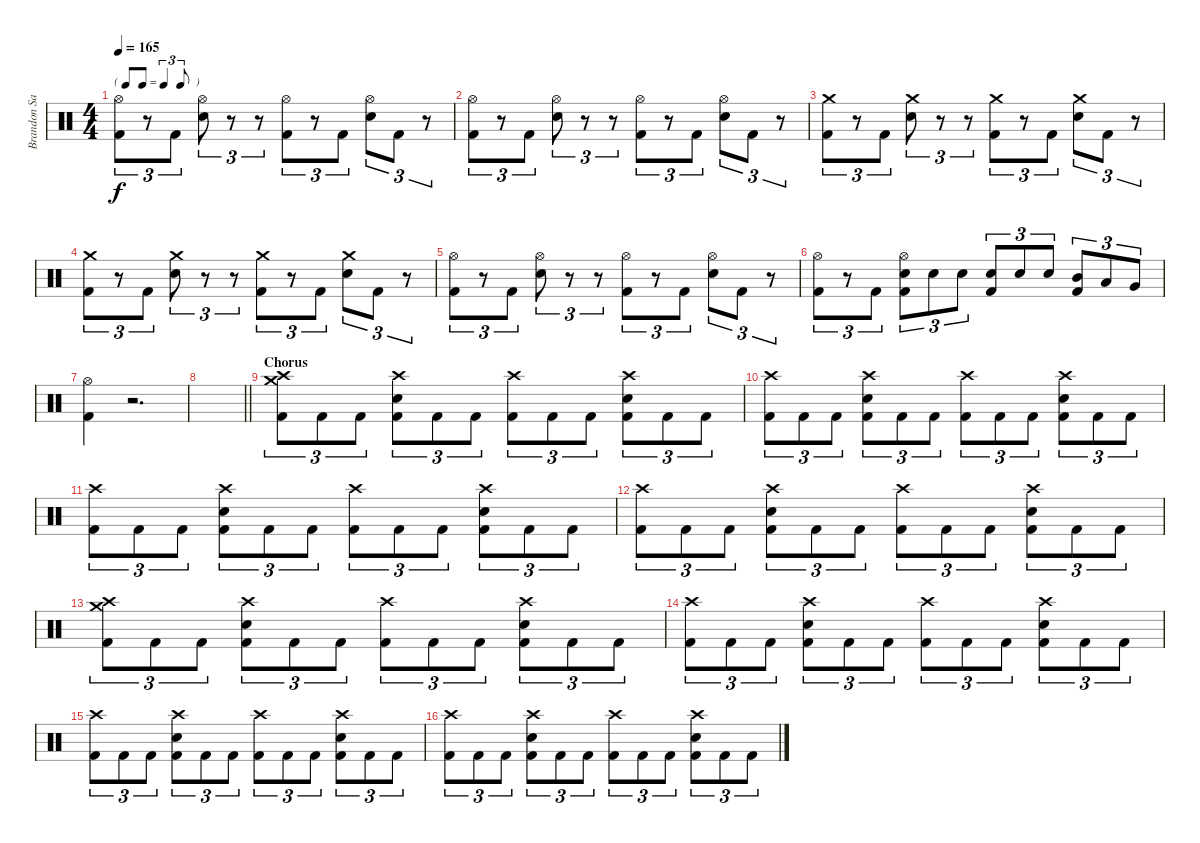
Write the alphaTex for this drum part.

\track ("Brandon Saller" "Brandon Sa") {instrument percussion}
\staff {score}
\articulation defaults
\ts (4 4)
\tf triplet8th
\tempo 165
\clef neutral
\ks c
("Hi-Hat (open)" "Kick (hit) 2").8{tu (3 2) dy f} r.8{tu (3 2)} "Kick (hit) 2".8{tu (3 2)} ("Hi-Hat (open)" "Electric Snare (hit)").8{tu (3 2)} r.8{tu (3 2)} r.8{tu (3 2)} ("Hi-Hat (open)" "Kick (hit) 2").8{tu (3 2)} r.8{tu (3 2)} "Kick (hit) 2".8{tu (3 2)} ("Hi-Hat (open)" "Electric Snare (hit)").8{tu (3 2)} "Kick (hit) 2".8{tu (3 2)} r.8{tu (3 2)} |
("Hi-Hat (open)" "Kick (hit) 2").8{tu (3 2)} r.8{tu (3 2)} "Kick (hit) 2".8{tu (3 2)} ("Hi-Hat (open)" "Electric Snare (hit)").8{tu (3 2)} r.8{tu (3 2)} r.8{tu (3 2)} ("Hi-Hat (open)" "Kick (hit) 2").8{tu (3 2)} r.8{tu (3 2)} "Kick (hit) 2".8{tu (3 2)} ("Hi-Hat (open)" "Electric Snare (hit)").8{tu (3 2)} "Kick (hit) 2".8{tu (3 2)} r.8{tu (3 2)} |
("Crash medium (hit)" "Kick (hit) 2").8{tu (3 2)} r.8{tu (3 2)} "Kick (hit) 2".8{tu (3 2)} ("Crash medium (hit)" "Electric Snare (hit)").8{tu (3 2)} r.8{tu (3 2)} r.8{tu (3 2)} ("Crash medium (hit)" "Kick (hit) 2").8{tu (3 2)} r.8{tu (3 2)} "Kick (hit) 2".8{tu (3 2)} ("Crash medium (hit)" "Electric Snare (hit)").8{tu (3 2)} "Kick (hit) 2".8{tu (3 2)} r.8{tu (3 2)} |
("Crash medium (hit)" "Kick (hit) 2").8{tu (3 2)} r.8{tu (3 2)} "Kick (hit) 2".8{tu (3 2)} ("Crash medium (hit)" "Electric Snare (hit)").8{tu (3 2)} r.8{tu (3 2)} r.8{tu (3 2)} ("Crash medium (hit)" "Kick (hit) 2").8{tu (3 2)} r.8{tu (3 2)} "Kick (hit) 2".8{tu (3 2)} ("Crash medium (hit)" "Electric Snare (hit)").8{tu (3 2)} "Kick (hit) 2".8{tu (3 2)} r.8{tu (3 2)} |
("Hi-Hat (open)" "Kick (hit) 2").8{tu (3 2)} r.8{tu (3 2)} "Kick (hit) 2".8{tu (3 2)} ("Hi-Hat (open)" "Electric Snare (hit)").8{tu (3 2)} r.8{tu (3 2)} r.8{tu (3 2)} ("Hi-Hat (open)" "Kick (hit) 2").8{tu (3 2)} r.8{tu (3 2)} "Kick (hit) 2".8{tu (3 2)} ("Hi-Hat (open)" "Electric Snare (hit)").8{tu (3 2)} "Kick (hit) 2".8{tu (3 2)} r.8{tu (3 2)} |
("Hi-Hat (open)" "Kick (hit) 2").8{tu (3 2)} r.8{tu (3 2)} "Kick (hit) 2".8{tu (3 2)} ("Hi-Hat (open)" "Electric Snare (hit)" "Kick (hit) 2").8{tu (3 2)} "Electric Snare (hit)".8{tu (3 2)} "Electric Snare (hit)".8{tu (3 2)} ("Electric Snare (hit)" "Kick (hit) 2").8{tu (3 2)} "Electric Snare (hit)".8{tu (3 2)} "Electric Snare (hit)".8{tu (3 2)} ("Mid Tom (hit)" "Kick (hit) 2").8{tu (3 2)} "Low Tom (hit)".8{tu (3 2)} "Very Low Tom (hit)".8{tu (3 2)} |
("Hi-Hat (open)" "Kick (hit) 2").4 r.2{d} |
\barLineRight lightlight
|
\section ("" "Chorus")
("Crash high (hit)" "Crash medium (hit)" "Kick (hit) 2").8{tu (3 2)} "Kick (hit) 2".8{tu (3 2)} "Kick (hit) 2".8{tu (3 2)} ("Crash high (hit)" "Electric Snare (hit)" "Kick (hit) 2").8{tu (3 2)} "Kick (hit) 2".8{tu (3 2)} "Kick (hit) 2".8{tu (3 2)} ("Crash high (hit)" "Kick (hit) 2").8{tu (3 2)} "Kick (hit) 2".8{tu (3 2)} "Kick (hit) 2".8{tu (3 2)} ("Crash high (hit)" "Electric Snare (hit)" "Kick (hit) 2").8{tu (3 2)} "Kick (hit) 2".8{tu (3 2)} "Kick (hit) 2".8{tu (3 2)} |
("Crash high (hit)" "Kick (hit) 2").8{tu (3 2)} "Kick (hit) 2".8{tu (3 2)} "Kick (hit) 2".8{tu (3 2)} ("Crash high (hit)" "Electric Snare (hit)" "Kick (hit) 2").8{tu (3 2)} "Kick (hit) 2".8{tu (3 2)} "Kick (hit) 2".8{tu (3 2)} ("Crash high (hit)" "Kick (hit) 2").8{tu (3 2)} "Kick (hit) 2".8{tu (3 2)} "Kick (hit) 2".8{tu (3 2)} ("Crash high (hit)" "Electric Snare (hit)" "Kick (hit) 2").8{tu (3 2)} "Kick (hit) 2".8{tu (3 2)} "Kick (hit) 2".8{tu (3 2)} |
("Crash high (hit)" "Kick (hit) 2").8{tu (3 2)} "Kick (hit) 2".8{tu (3 2)} "Kick (hit) 2".8{tu (3 2)} ("Crash high (hit)" "Electric Snare (hit)" "Kick (hit) 2").8{tu (3 2)} "Kick (hit) 2".8{tu (3 2)} "Kick (hit) 2".8{tu (3 2)} ("Crash high (hit)" "Kick (hit) 2").8{tu (3 2)} "Kick (hit) 2".8{tu (3 2)} "Kick (hit) 2".8{tu (3 2)} ("Crash high (hit)" "Electric Snare (hit)" "Kick (hit) 2").8{tu (3 2)} "Kick (hit) 2".8{tu (3 2)} "Kick (hit) 2".8{tu (3 2)} |
("Crash high (hit)" "Kick (hit) 2").8{tu (3 2)} "Kick (hit) 2".8{tu (3 2)} "Kick (hit) 2".8{tu (3 2)} ("Crash high (hit)" "Electric Snare (hit)" "Kick (hit) 2").8{tu (3 2)} "Kick (hit) 2".8{tu (3 2)} "Kick (hit) 2".8{tu (3 2)} ("Crash high (hit)" "Kick (hit) 2").8{tu (3 2)} "Kick (hit) 2".8{tu (3 2)} "Kick (hit) 2".8{tu (3 2)} ("Crash high (hit)" "Electric Snare (hit)" "Kick (hit) 2").8{tu (3 2)} "Kick (hit) 2".8{tu (3 2)} "Kick (hit) 2".8{tu (3 2)} |
("Crash high (hit)" "Crash medium (hit)" "Kick (hit) 2").8{tu (3 2)} "Kick (hit) 2".8{tu (3 2)} "Kick (hit) 2".8{tu (3 2)} ("Crash high (hit)" "Electric Snare (hit)" "Kick (hit) 2").8{tu (3 2)} "Kick (hit) 2".8{tu (3 2)} "Kick (hit) 2".8{tu (3 2)} ("Crash high (hit)" "Kick (hit) 2").8{tu (3 2)} "Kick (hit) 2".8{tu (3 2)} "Kick (hit) 2".8{tu (3 2)} ("Crash high (hit)" "Electric Snare (hit)" "Kick (hit) 2").8{tu (3 2)} "Kick (hit) 2".8{tu (3 2)} "Kick (hit) 2".8{tu (3 2)} |
("Crash high (hit)" "Kick (hit) 2").8{tu (3 2)} "Kick (hit) 2".8{tu (3 2)} "Kick (hit) 2".8{tu (3 2)} ("Crash high (hit)" "Electric Snare (hit)" "Kick (hit) 2").8{tu (3 2)} "Kick (hit) 2".8{tu (3 2)} "Kick (hit) 2".8{tu (3 2)} ("Crash high (hit)" "Kick (hit) 2").8{tu (3 2)} "Kick (hit) 2".8{tu (3 2)} "Kick (hit) 2".8{tu (3 2)} ("Crash high (hit)" "Electric Snare (hit)" "Kick (hit) 2").8{tu (3 2)} "Kick (hit) 2".8{tu (3 2)} "Kick (hit) 2".8{tu (3 2)} |
("Crash high (hit)" "Kick (hit) 2").8{tu (3 2)} "Kick (hit) 2".8{tu (3 2)} "Kick (hit) 2".8{tu (3 2)} ("Crash high (hit)" "Electric Snare (hit)" "Kick (hit) 2").8{tu (3 2)} "Kick (hit) 2".8{tu (3 2)} "Kick (hit) 2".8{tu (3 2)} ("Crash high (hit)" "Kick (hit) 2").8{tu (3 2)} "Kick (hit) 2".8{tu (3 2)} "Kick (hit) 2".8{tu (3 2)} ("Crash high (hit)" "Electric Snare (hit)" "Kick (hit) 2").8{tu (3 2)} "Kick (hit) 2".8{tu (3 2)} "Kick (hit) 2".8{tu (3 2)} |
("Crash high (hit)" "Kick (hit) 2").8{tu (3 2)} "Kick (hit) 2".8{tu (3 2)} "Kick (hit) 2".8{tu (3 2)} ("Crash high (hit)" "Electric Snare (hit)" "Kick (hit) 2").8{tu (3 2)} "Kick (hit) 2".8{tu (3 2)} "Kick (hit) 2".8{tu (3 2)} ("Crash high (hit)" "Kick (hit) 2").8{tu (3 2)} "Kick (hit) 2".8{tu (3 2)} "Kick (hit) 2".8{tu (3 2)} ("Crash high (hit)" "Electric Snare (hit)" "Kick (hit) 2").8{tu (3 2)} "Kick (hit) 2".8{tu (3 2)} "Kick (hit) 2".8{tu (3 2)}
